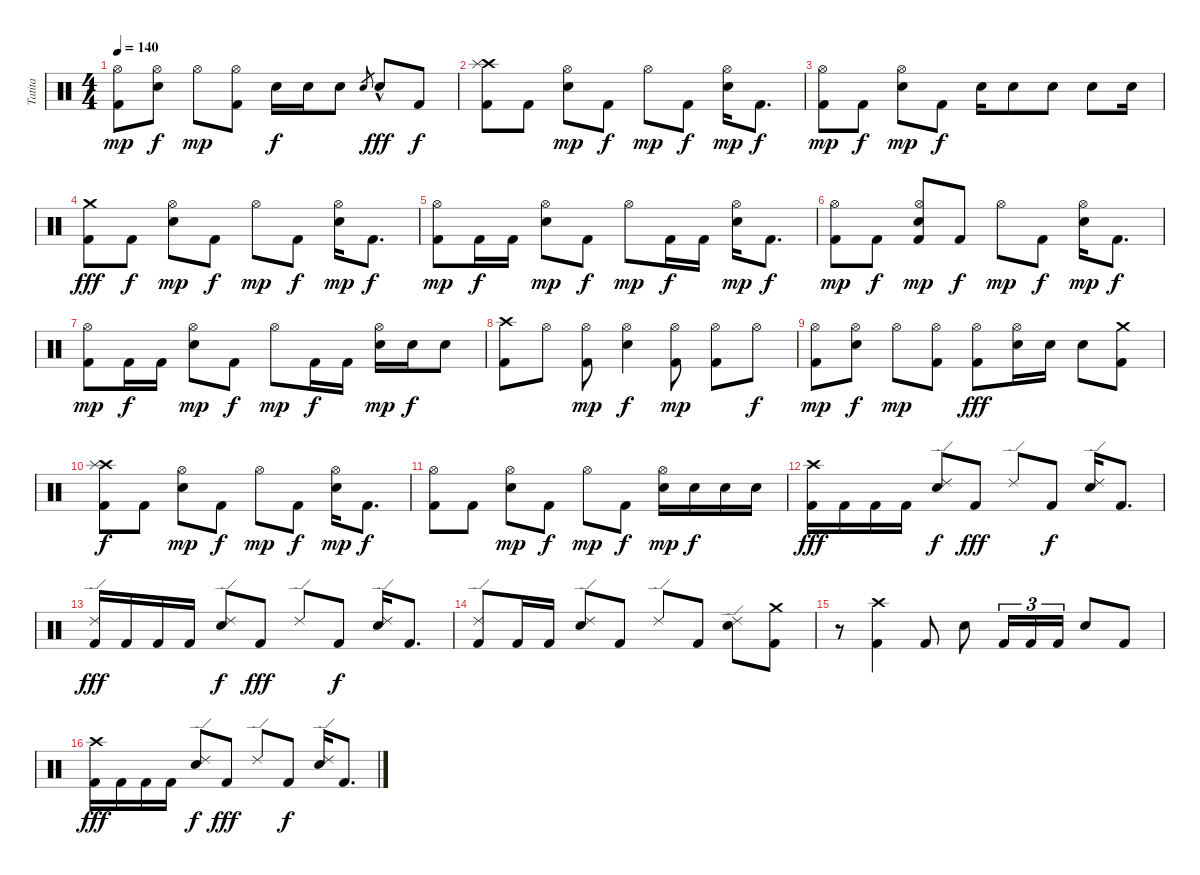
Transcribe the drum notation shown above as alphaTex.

\track ("Tatita" "Tatita") {instrument percussion}
\staff {score}
\articulation defaults
\ts (4 4)
\tempo 140
\clef neutral
\ks c
("Kick (hit) 2" "Hi-Hat (open)").8{dy mp} ("Electric Snare (hit)" "Hi-Hat (open)").8{dy f} "Hi-Hat (open)".8{dy mp} ("Kick (hit) 2" "Hi-Hat (open)").8 "Electric Snare (hit)".16{dy f} "Electric Snare (hit)".16 "Electric Snare (hit)".8 "Electric Snare (hit)".8{gr} "Electric Snare (hit)"{hac}.8{dy fff} "Kick (hit) 2".8{dy f} |
("Kick (hit) 2" "Crash high (hit)" "Splash (hit)").8 "Kick (hit) 2".8 ("Electric Snare (hit)" "Hi-Hat (open)").8{dy mp} "Kick (hit) 2".8{dy f} "Hi-Hat (open)".8{dy mp} "Kick (hit) 2".8{dy f} ("Electric Snare (hit)" "Hi-Hat (open)").16{dy mp} "Kick (hit) 2".8{d dy f} |
("Kick (hit) 2" "Hi-Hat (open)").8{dy mp} "Kick (hit) 2".8{dy f} ("Electric Snare (hit)" "Hi-Hat (open)").8{dy mp} "Kick (hit) 2".8{dy f} "Electric Snare (hit)".16 "Electric Snare (hit)".8 "Electric Snare (hit)".8 "Electric Snare (hit)".8 "Electric Snare (hit)".16 |
("Kick (hit) 2" "Crash medium (hit)").8{dy fff} "Kick (hit) 2".8{dy f} ("Electric Snare (hit)" "Hi-Hat (open)").8{dy mp} "Kick (hit) 2".8{dy f} "Hi-Hat (open)".8{dy mp} "Kick (hit) 2".8{dy f} ("Electric Snare (hit)" "Hi-Hat (open)").16{dy mp} "Kick (hit) 2".8{d dy f} |
("Kick (hit) 2" "Hi-Hat (open)").8{dy mp} "Kick (hit) 2".16{dy f} "Kick (hit) 2".16 ("Electric Snare (hit)" "Hi-Hat (open)").8{dy mp} "Kick (hit) 2".8{dy f} "Hi-Hat (open)".8{dy mp} "Kick (hit) 2".16{dy f} "Kick (hit) 2".16 ("Electric Snare (hit)" "Hi-Hat (open)").16{dy mp} "Kick (hit) 2".8{d dy f} |
("Kick (hit) 2" "Hi-Hat (open)").8{dy mp} "Kick (hit) 2".8{dy f} ("Kick (hit) 2" "Electric Snare (hit)" "Hi-Hat (open)").8{dy mp} "Kick (hit) 2".8{dy f} "Hi-Hat (open)".8{dy mp} "Kick (hit) 2".8{dy f} ("Electric Snare (hit)" "Hi-Hat (open)").16{dy mp} "Kick (hit) 2".8{d dy f} |
("Kick (hit) 2" "Hi-Hat (open)").8{dy mp} "Kick (hit) 2".16{dy f} "Kick (hit) 2".16 ("Electric Snare (hit)" "Hi-Hat (open)").8{dy mp} "Kick (hit) 2".8{dy f} "Hi-Hat (open)".8{dy mp} "Kick (hit) 2".16{dy f} "Kick (hit) 2".16 ("Electric Snare (hit)" "Hi-Hat (open)").16{dy mp} "Electric Snare (hit)".16{dy f} "Electric Snare (hit)".8 |
("Kick (hit) 2" "Crash high (hit)").8 "Hi-Hat (open)".8 ("Kick (hit) 2" "Hi-Hat (open)").8{dy mp} ("Electric Snare (hit)" "Hi-Hat (open)").4{dy f} ("Kick (hit) 2" "Hi-Hat (open)").8{dy mp} ("Kick (hit) 2" "Hi-Hat (open)").8 "Hi-Hat (open)".8{dy f} |
("Kick (hit) 2" "Hi-Hat (open)").8{dy mp} ("Electric Snare (hit)" "Hi-Hat (open)").8{dy f} "Hi-Hat (open)".8{dy mp} ("Kick (hit) 2" "Hi-Hat (open)").8 ("Kick (hit) 2" "Hi-Hat (open)").8{dy fff} ("Electric Snare (hit)" "Hi-Hat (open)").16 "Electric Snare (hit)".16 "Electric Snare (hit)".8 ("Kick (hit) 2" "Crash medium (hit)").8 |
("Kick (hit) 2" "Crash high (hit)" "Splash (hit)").8{dy f} "Kick (hit) 2".8 ("Electric Snare (hit)" "Hi-Hat (open)").8{dy mp} "Kick (hit) 2".8{dy f} "Hi-Hat (open)".8{dy mp} "Kick (hit) 2".8{dy f} ("Electric Snare (hit)" "Hi-Hat (open)").16{dy mp} "Kick (hit) 2".8{d dy f} |
("Kick (hit) 2" "Hi-Hat (open)").8 "Kick (hit) 2".8 ("Electric Snare (hit)" "Hi-Hat (open)").8{dy mp} "Kick (hit) 2".8{dy f} "Hi-Hat (open)".8{dy mp} "Kick (hit) 2".8{dy f} ("Electric Snare (hit)" "Hi-Hat (open)").16{dy mp} "Electric Snare (hit)".16{dy f} "Electric Snare (hit)".16 "Electric Snare (hit)".16 |
("Kick (hit) 2" "Crash high (hit)").16{dy fff} "Kick (hit) 2".16 "Kick (hit) 2".16 "Kick (hit) 2".16 ("Electric Snare (hit)" "Ride (edge) 2").8{dy f} "Kick (hit) 2".8{dy fff} "Ride (edge) 2".8 "Kick (hit) 2".8{dy f} ("Electric Snare (hit)" "Ride (edge) 2").16 "Kick (hit) 2".8{d} |
("Kick (hit) 2" "Ride (edge) 2").16{dy fff} "Kick (hit) 2".16 "Kick (hit) 2".16 "Kick (hit) 2".16 ("Electric Snare (hit)" "Ride (edge) 2").8{dy f} "Kick (hit) 2".8{dy fff} "Ride (edge) 2".8 "Kick (hit) 2".8{dy f} ("Electric Snare (hit)" "Ride (edge) 2").16 "Kick (hit) 2".8{d} |
("Kick (hit) 2" "Ride (edge) 2").8 "Kick (hit) 2".16 "Kick (hit) 2".16 ("Electric Snare (hit)" "Ride (edge) 2").8 "Kick (hit) 2".8 "Ride (edge) 2".8 "Kick (hit) 2".8 ("Electric Snare (hit)" "Ride (edge) 2").8 ("Kick (hit) 2" "Crash medium (hit)").8 |
r.8 ("Kick (hit) 2" "Crash high (hit)").4 "Kick (hit) 2".8 "Electric Snare (hit)".8 "Kick (hit) 2".16{tu (3 2)} "Kick (hit) 2".16{tu (3 2)} "Kick (hit) 2".16{tu (3 2)} "Electric Snare (hit)".8 "Kick (hit) 2".8 |
("Kick (hit) 2" "Crash high (hit)").16{dy fff} "Kick (hit) 2".16 "Kick (hit) 2".16 "Kick (hit) 2".16 ("Electric Snare (hit)" "Ride (edge) 2").8{dy f} "Kick (hit) 2".8{dy fff} "Ride (edge) 2".8 "Kick (hit) 2".8{dy f} ("Electric Snare (hit)" "Ride (edge) 2").16 "Kick (hit) 2".8{d}
